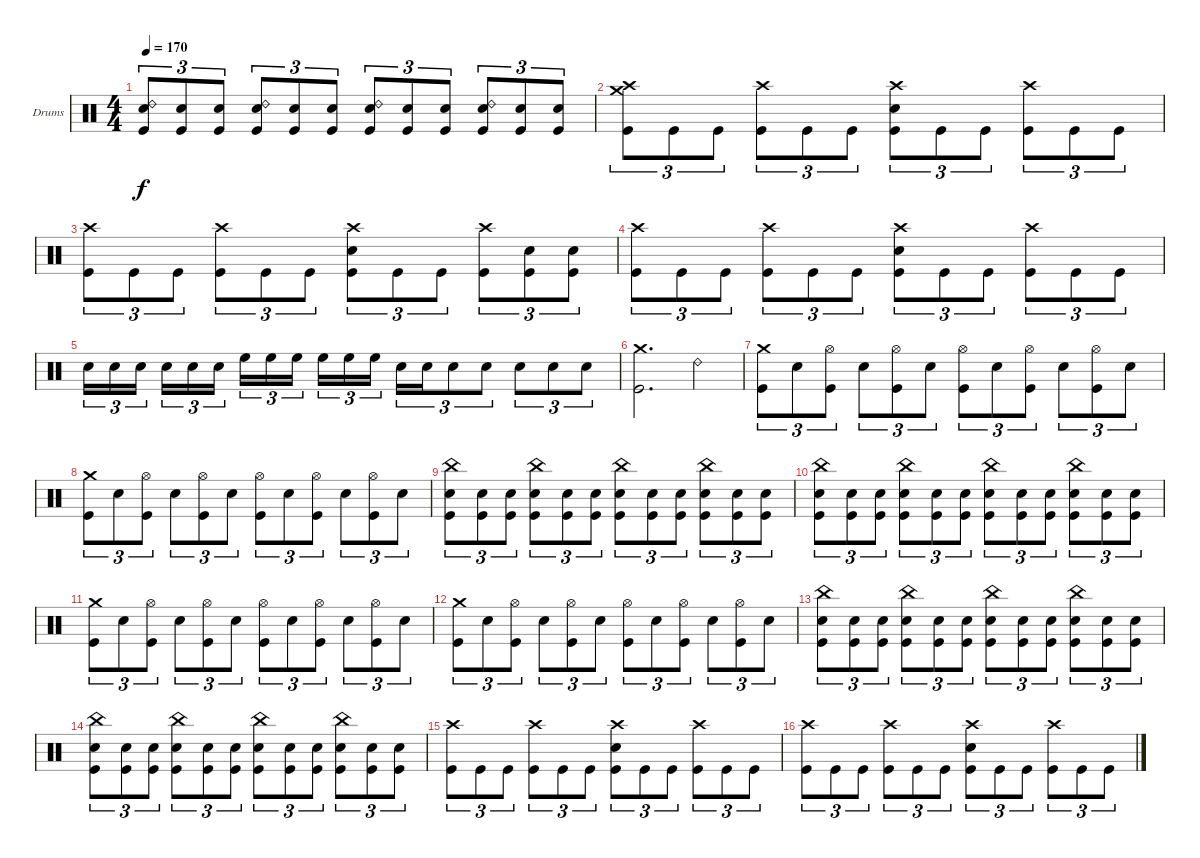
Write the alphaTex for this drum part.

\bracketExtendMode groupsimilarinstruments
\firstSystemTrackNameOrientation horizontal
\otherSystemsTrackNameOrientation horizontal
\track ("Drumkit" "Drums") {instrument percussion}
\staff {score}
\articulation defaults
\ts (4 4)
\tempo 170
\clef neutral
\ks c
("Ride (bell) 2" "Snare (hit) 2" "Kick (hit)").8{tu (3 2) dy f} ("Snare (hit) 2" "Kick (hit)").8{tu (3 2)} ("Snare (hit) 2" "Kick (hit)").8{tu (3 2)} ("Ride (bell) 2" "Snare (hit) 2" "Kick (hit)").8{tu (3 2)} ("Snare (hit) 2" "Kick (hit)").8{tu (3 2)} ("Snare (hit) 2" "Kick (hit)").8{tu (3 2)} ("Ride (bell) 2" "Snare (hit) 2" "Kick (hit)").8{tu (3 2)} ("Snare (hit) 2" "Kick (hit)").8{tu (3 2)} ("Snare (hit) 2" "Kick (hit)").8{tu (3 2)} ("Ride (bell) 2" "Snare (hit) 2" "Kick (hit)").8{tu (3 2)} ("Snare (hit) 2" "Kick (hit)").8{tu (3 2)} ("Snare (hit) 2" "Kick (hit)").8{tu (3 2)} |
("Crash medium (hit)" "Crash high (hit)" "Kick (hit)").8{tu (3 2)} "Kick (hit)".8{tu (3 2)} "Kick (hit)".8{tu (3 2)} ("Crash high (hit)" "Kick (hit)").8{tu (3 2)} "Kick (hit)".8{tu (3 2)} "Kick (hit)".8{tu (3 2)} ("Crash high (hit)" "Snare (hit) 2" "Kick (hit)").8{tu (3 2)} "Kick (hit)".8{tu (3 2)} "Kick (hit)".8{tu (3 2)} ("Crash high (hit)" "Kick (hit)").8{tu (3 2)} "Kick (hit)".8{tu (3 2)} "Kick (hit)".8{tu (3 2)} |
("Crash high (hit)" "Kick (hit)").8{tu (3 2)} "Kick (hit)".8{tu (3 2)} "Kick (hit)".8{tu (3 2)} ("Crash high (hit)" "Kick (hit)").8{tu (3 2)} "Kick (hit)".8{tu (3 2)} "Kick (hit)".8{tu (3 2)} ("Crash high (hit)" "Snare (hit) 2" "Kick (hit)").8{tu (3 2)} "Kick (hit)".8{tu (3 2)} "Kick (hit)".8{tu (3 2)} ("Crash high (hit)" "Kick (hit)").8{tu (3 2)} ("Snare (hit) 2" "Kick (hit)").8{tu (3 2)} ("Snare (hit) 2" "Kick (hit)").8{tu (3 2)} |
("Crash high (hit)" "Kick (hit)").8{tu (3 2)} "Kick (hit)".8{tu (3 2)} "Kick (hit)".8{tu (3 2)} ("Crash high (hit)" "Kick (hit)").8{tu (3 2)} "Kick (hit)".8{tu (3 2)} "Kick (hit)".8{tu (3 2)} ("Crash high (hit)" "Snare (hit) 2" "Kick (hit)").8{tu (3 2)} "Kick (hit)".8{tu (3 2)} "Kick (hit)".8{tu (3 2)} ("Crash high (hit)" "Kick (hit)").8{tu (3 2)} "Kick (hit)".8{tu (3 2)} "Kick (hit)".8{tu (3 2)} |
"Snare (hit) 2".16{tu (3 2)} "Snare (hit) 2".16{tu (3 2)} "Snare (hit) 2".16{tu (3 2)} "Snare (hit) 2".16{tu (3 2)} "Snare (hit) 2".16{tu (3 2)} "Snare (hit) 2".16{tu (3 2)} "High Floor Tom (hit)".16{tu (3 2)} "High Floor Tom (hit)".16{tu (3 2)} "High Floor Tom (hit)".16{tu (3 2)} "High Floor Tom (hit)".16{tu (3 2)} "High Floor Tom (hit)".16{tu (3 2)} "High Floor Tom (hit)".16{tu (3 2)} "Snare (hit) 2".16{tu (3 2)} "Snare (hit) 2".16{tu (3 2)} "Snare (hit) 2".8{tu (3 2)} "Snare (hit) 2".8{tu (3 2)} "Snare (hit) 2".8{tu (3 2)} "Snare (hit) 2".8{tu (3 2)} "Snare (hit) 2".8{tu (3 2)} |
("Crash medium (hit)" "Kick (hit)").2{d} "Ride (bell) 2".4 |
("Crash medium (hit)" "Kick (hit)").8{tu (3 2)} "Snare (hit) 2".8{tu (3 2)} ("Hi-Hat (open)" "Kick (hit)").8{tu (3 2)} "Snare (hit) 2".8{tu (3 2)} ("Hi-Hat (open)" "Kick (hit)").8{tu (3 2)} "Snare (hit) 2".8{tu (3 2)} ("Hi-Hat (open)" "Kick (hit)").8{tu (3 2)} "Snare (hit) 2".8{tu (3 2)} ("Hi-Hat (open)" "Kick (hit)").8{tu (3 2)} "Snare (hit) 2".8{tu (3 2)} ("Hi-Hat (open)" "Kick (hit)").8{tu (3 2)} "Snare (hit) 2".8{tu (3 2)} |
("Crash medium (hit)" "Kick (hit)").8{tu (3 2)} "Snare (hit) 2".8{tu (3 2)} ("Hi-Hat (open)" "Kick (hit)").8{tu (3 2)} "Snare (hit) 2".8{tu (3 2)} ("Hi-Hat (open)" "Kick (hit)").8{tu (3 2)} "Snare (hit) 2".8{tu (3 2)} ("Hi-Hat (open)" "Kick (hit)").8{tu (3 2)} "Snare (hit) 2".8{tu (3 2)} ("Hi-Hat (open)" "Kick (hit)").8{tu (3 2)} "Snare (hit) 2".8{tu (3 2)} ("Hi-Hat (open)" "Kick (hit)").8{tu (3 2)} "Snare (hit) 2".8{tu (3 2)} |
("China (hit)" "Snare (hit) 2" "Kick (hit)").8{tu (3 2)} ("Snare (hit) 2" "Kick (hit)").8{tu (3 2)} ("Snare (hit) 2" "Kick (hit)").8{tu (3 2)} ("China (hit)" "Snare (hit) 2" "Kick (hit)").8{tu (3 2)} ("Snare (hit) 2" "Kick (hit)").8{tu (3 2)} ("Snare (hit) 2" "Kick (hit)").8{tu (3 2)} ("China (hit)" "Snare (hit) 2" "Kick (hit)").8{tu (3 2)} ("Snare (hit) 2" "Kick (hit)").8{tu (3 2)} ("Snare (hit) 2" "Kick (hit)").8{tu (3 2)} ("China (hit)" "Snare (hit) 2" "Kick (hit)").8{tu (3 2)} ("Snare (hit) 2" "Kick (hit)").8{tu (3 2)} ("Snare (hit) 2" "Kick (hit)").8{tu (3 2)} |
("China (hit)" "Snare (hit) 2" "Kick (hit)").8{tu (3 2)} ("Snare (hit) 2" "Kick (hit)").8{tu (3 2)} ("Snare (hit) 2" "Kick (hit)").8{tu (3 2)} ("China (hit)" "Snare (hit) 2" "Kick (hit)").8{tu (3 2)} ("Snare (hit) 2" "Kick (hit)").8{tu (3 2)} ("Snare (hit) 2" "Kick (hit)").8{tu (3 2)} ("China (hit)" "Snare (hit) 2" "Kick (hit)").8{tu (3 2)} ("Snare (hit) 2" "Kick (hit)").8{tu (3 2)} ("Snare (hit) 2" "Kick (hit)").8{tu (3 2)} ("China (hit)" "Snare (hit) 2" "Kick (hit)").8{tu (3 2)} ("Snare (hit) 2" "Kick (hit)").8{tu (3 2)} ("Snare (hit) 2" "Kick (hit)").8{tu (3 2)} |
("Crash medium (hit)" "Kick (hit)").8{tu (3 2)} "Snare (hit) 2".8{tu (3 2)} ("Hi-Hat (open)" "Kick (hit)").8{tu (3 2)} "Snare (hit) 2".8{tu (3 2)} ("Hi-Hat (open)" "Kick (hit)").8{tu (3 2)} "Snare (hit) 2".8{tu (3 2)} ("Hi-Hat (open)" "Kick (hit)").8{tu (3 2)} "Snare (hit) 2".8{tu (3 2)} ("Hi-Hat (open)" "Kick (hit)").8{tu (3 2)} "Snare (hit) 2".8{tu (3 2)} ("Hi-Hat (open)" "Kick (hit)").8{tu (3 2)} "Snare (hit) 2".8{tu (3 2)} |
("Crash medium (hit)" "Kick (hit)").8{tu (3 2)} "Snare (hit) 2".8{tu (3 2)} ("Hi-Hat (open)" "Kick (hit)").8{tu (3 2)} "Snare (hit) 2".8{tu (3 2)} ("Hi-Hat (open)" "Kick (hit)").8{tu (3 2)} "Snare (hit) 2".8{tu (3 2)} ("Hi-Hat (open)" "Kick (hit)").8{tu (3 2)} "Snare (hit) 2".8{tu (3 2)} ("Hi-Hat (open)" "Kick (hit)").8{tu (3 2)} "Snare (hit) 2".8{tu (3 2)} ("Hi-Hat (open)" "Kick (hit)").8{tu (3 2)} "Snare (hit) 2".8{tu (3 2)} |
("China (hit)" "Snare (hit) 2" "Kick (hit)").8{tu (3 2)} ("Snare (hit) 2" "Kick (hit)").8{tu (3 2)} ("Snare (hit) 2" "Kick (hit)").8{tu (3 2)} ("China (hit)" "Snare (hit) 2" "Kick (hit)").8{tu (3 2)} ("Snare (hit) 2" "Kick (hit)").8{tu (3 2)} ("Snare (hit) 2" "Kick (hit)").8{tu (3 2)} ("China (hit)" "Snare (hit) 2" "Kick (hit)").8{tu (3 2)} ("Snare (hit) 2" "Kick (hit)").8{tu (3 2)} ("Snare (hit) 2" "Kick (hit)").8{tu (3 2)} ("China (hit)" "Snare (hit) 2" "Kick (hit)").8{tu (3 2)} ("Snare (hit) 2" "Kick (hit)").8{tu (3 2)} ("Snare (hit) 2" "Kick (hit)").8{tu (3 2)} |
("China (hit)" "Snare (hit) 2" "Kick (hit)").8{tu (3 2)} ("Snare (hit) 2" "Kick (hit)").8{tu (3 2)} ("Snare (hit) 2" "Kick (hit)").8{tu (3 2)} ("China (hit)" "Snare (hit) 2" "Kick (hit)").8{tu (3 2)} ("Snare (hit) 2" "Kick (hit)").8{tu (3 2)} ("Snare (hit) 2" "Kick (hit)").8{tu (3 2)} ("China (hit)" "Snare (hit) 2" "Kick (hit)").8{tu (3 2)} ("Snare (hit) 2" "Kick (hit)").8{tu (3 2)} ("Snare (hit) 2" "Kick (hit)").8{tu (3 2)} ("China (hit)" "Snare (hit) 2" "Kick (hit)").8{tu (3 2)} ("Snare (hit) 2" "Kick (hit)").8{tu (3 2)} ("Snare (hit) 2" "Kick (hit)").8{tu (3 2)} |
("Crash high (hit)" "Kick (hit)").8{tu (3 2)} "Kick (hit)".8{tu (3 2)} "Kick (hit)".8{tu (3 2)} ("Crash high (hit)" "Kick (hit)").8{tu (3 2)} "Kick (hit)".8{tu (3 2)} "Kick (hit)".8{tu (3 2)} ("Crash high (hit)" "Snare (hit) 2" "Kick (hit)").8{tu (3 2)} "Kick (hit)".8{tu (3 2)} "Kick (hit)".8{tu (3 2)} ("Crash high (hit)" "Kick (hit)").8{tu (3 2)} "Kick (hit)".8{tu (3 2)} "Kick (hit)".8{tu (3 2)} |
("Crash high (hit)" "Kick (hit)").8{tu (3 2)} "Kick (hit)".8{tu (3 2)} "Kick (hit)".8{tu (3 2)} ("Crash high (hit)" "Kick (hit)").8{tu (3 2)} "Kick (hit)".8{tu (3 2)} "Kick (hit)".8{tu (3 2)} ("Crash high (hit)" "Snare (hit) 2" "Kick (hit)").8{tu (3 2)} "Kick (hit)".8{tu (3 2)} "Kick (hit)".8{tu (3 2)} ("Crash high (hit)" "Kick (hit)").8{tu (3 2)} "Kick (hit)".8{tu (3 2)} "Kick (hit)".8{tu (3 2)}
